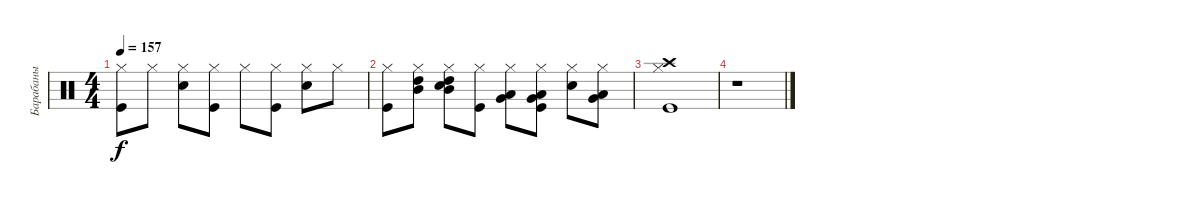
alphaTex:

\track ("Барабаны" "Барабаны") {instrument percussion}
\staff {score}
\articulation defaults
\ts (4 4)
\tempo 157
\clef neutral
\ks c
("Kick (hit)" "Hi-Hat (closed)").8{dy f} "Hi-Hat (closed)".8 ("Snare (hit) 2" "Hi-Hat (closed)").8 ("Kick (hit)" "Hi-Hat (closed)").8 "Hi-Hat (closed)".8 ("Kick (hit)" "Hi-Hat (closed)").8 ("Snare (hit) 2" "Hi-Hat (closed)").8 "Hi-Hat (closed)".8 |
("Kick (hit)" "Hi-Hat (closed)").8 ("Hi-Hat (closed)" "Mid Tom (hit)" "High Tom (hit)").8 ("Snare (hit) 2" "Hi-Hat (closed)" "Mid Tom (hit)" "High Tom (hit)").8 ("Kick (hit)" "Hi-Hat (closed)").8 ("Hi-Hat (closed)" "Very Low Tom (hit)" "Low Tom (hit)").8 ("Kick (hit)" "Hi-Hat (closed)" "Very Low Tom (hit)" "Low Tom (hit)").8 ("Snare (hit) 2" "Hi-Hat (closed)").8 ("Hi-Hat (closed)" "Very Low Tom (hit)" "Low Tom (hit)").8 |
("Kick (hit)" "Hi-Hat (closed)" "Crash high (hit)").1 |
r.1
